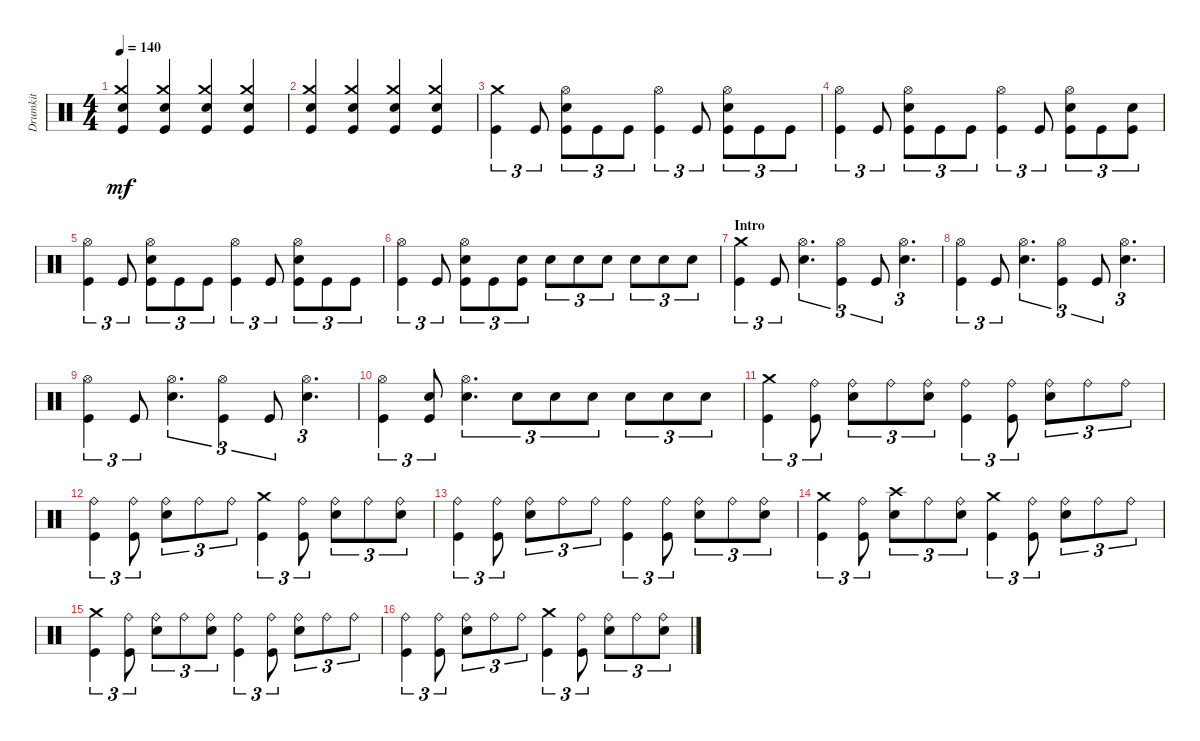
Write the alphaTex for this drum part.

\track ("Drumkit" "Drumkit") {instrument percussion}
\staff {score}
\articulation defaults
\ts (4 4)
\tempo 140
\clef neutral
\ks c
("Snare (hit) 2" "Crash medium (hit)" "Kick (hit)").4{dy mf} ("Snare (hit) 2" "Crash medium (hit)" "Kick (hit)").4 ("Snare (hit) 2" "Crash medium (hit)" "Kick (hit)").4 ("Snare (hit) 2" "Crash medium (hit)" "Kick (hit)").4 |
("Snare (hit) 2" "Crash medium (hit)" "Kick (hit)").4 ("Snare (hit) 2" "Crash medium (hit)" "Kick (hit)").4 ("Snare (hit) 2" "Crash medium (hit)" "Kick (hit)").4 ("Snare (hit) 2" "Crash medium (hit)" "Kick (hit)").4 |
("Kick (hit)" "Crash medium (hit)").4{tu (3 2)} "Kick (hit)".8{tu (3 2)} ("Kick (hit)" "Hi-Hat (open)" "Snare (hit) 2").8{tu (3 2)} "Kick (hit)".8{tu (3 2)} "Kick (hit)".8{tu (3 2)} ("Kick (hit)" "Hi-Hat (open)").4{tu (3 2)} "Kick (hit)".8{tu (3 2)} ("Kick (hit)" "Hi-Hat (open)" "Snare (hit) 2").8{tu (3 2)} "Kick (hit)".8{tu (3 2)} "Kick (hit)".8{tu (3 2)} |
("Kick (hit)" "Hi-Hat (open)").4{tu (3 2)} "Kick (hit)".8{tu (3 2)} ("Kick (hit)" "Hi-Hat (open)" "Snare (hit) 2").8{tu (3 2)} "Kick (hit)".8{tu (3 2)} "Kick (hit)".8{tu (3 2)} ("Kick (hit)" "Hi-Hat (open)").4{tu (3 2)} "Kick (hit)".8{tu (3 2)} ("Kick (hit)" "Hi-Hat (open)" "Snare (hit) 2").8{tu (3 2)} "Kick (hit)".8{tu (3 2)} ("Kick (hit)" "Snare (hit) 2").8{tu (3 2)} |
("Kick (hit)" "Hi-Hat (open)").4{tu (3 2)} "Kick (hit)".8{tu (3 2)} ("Kick (hit)" "Hi-Hat (open)" "Snare (hit) 2").8{tu (3 2)} "Kick (hit)".8{tu (3 2)} "Kick (hit)".8{tu (3 2)} ("Kick (hit)" "Hi-Hat (open)").4{tu (3 2)} "Kick (hit)".8{tu (3 2)} ("Kick (hit)" "Hi-Hat (open)" "Snare (hit) 2").8{tu (3 2)} "Kick (hit)".8{tu (3 2)} "Kick (hit)".8{tu (3 2)} |
("Kick (hit)" "Hi-Hat (open)").4{tu (3 2)} "Kick (hit)".8{tu (3 2)} ("Kick (hit)" "Hi-Hat (open)" "Snare (hit) 2").8{tu (3 2)} "Kick (hit)".8{tu (3 2)} ("Kick (hit)" "Snare (hit) 2").8{tu (3 2)} "Snare (hit) 2".8{tu (3 2)} "Snare (hit) 2".8{tu (3 2)} "Snare (hit) 2".8{tu (3 2)} "Snare (hit) 2".8{tu (3 2)} "Snare (hit) 2".8{tu (3 2)} "Snare (hit) 2".8{tu (3 2)} |
\section ("" "Intro")
("Crash medium (hit)" "Kick (hit)").4{tu (3 2)} "Kick (hit)".8{tu (3 2)} ("Snare (hit) 2" "Hi-Hat (open)").4{d tu (3 2)} ("Kick (hit)" "Hi-Hat (open)").4{tu (3 2)} "Kick (hit)".8{tu (3 2)} ("Snare (hit) 2" "Hi-Hat (open)").4{d tu (3 2)} |
("Kick (hit)" "Hi-Hat (open)").4{tu (3 2)} "Kick (hit)".8{tu (3 2)} ("Snare (hit) 2" "Hi-Hat (open)").4{d tu (3 2)} ("Kick (hit)" "Hi-Hat (open)").4{tu (3 2)} "Kick (hit)".8{tu (3 2)} ("Snare (hit) 2" "Hi-Hat (open)").4{d tu (3 2)} |
("Kick (hit)" "Hi-Hat (open)").4{tu (3 2)} "Kick (hit)".8{tu (3 2)} ("Snare (hit) 2" "Hi-Hat (open)").4{d tu (3 2)} ("Kick (hit)" "Hi-Hat (open)").4{tu (3 2)} "Kick (hit)".8{tu (3 2)} ("Snare (hit) 2" "Hi-Hat (open)").4{d tu (3 2)} |
("Kick (hit)" "Hi-Hat (open)").4{tu (3 2)} ("Kick (hit)" "Snare (hit) 2").8{tu (3 2)} ("Snare (hit) 2" "Hi-Hat (open)").4{d tu (3 2)} "Snare (hit) 2".8{tu (3 2)} "Snare (hit) 2".8{tu (3 2)} "Snare (hit) 2".8{tu (3 2)} "Snare (hit) 2".8{tu (3 2)} "Snare (hit) 2".8{tu (3 2)} "Snare (hit) 2".8{tu (3 2)} |
("Crash medium (hit)" "Kick (hit)").4{tu (3 2)} ("Ride (bell)" "Kick (hit)").8{tu (3 2)} ("Ride (bell)" "Snare (hit) 2").8{tu (3 2)} "Ride (bell)".8{tu (3 2)} ("Ride (bell)" "Snare (hit) 2").8{tu (3 2)} ("Ride (bell)" "Kick (hit)").4{tu (3 2)} ("Ride (bell)" "Kick (hit)").8{tu (3 2)} ("Ride (bell)" "Snare (hit) 2").8{tu (3 2)} "Ride (bell)".8{tu (3 2)} "Ride (bell)".8{tu (3 2)} |
("Kick (hit)" "Ride (bell)").4{tu (3 2)} ("Ride (bell)" "Kick (hit)").8{tu (3 2)} ("Ride (bell)" "Snare (hit) 2").8{tu (3 2)} "Ride (bell)".8{tu (3 2)} "Ride (bell)".8{tu (3 2)} ("Kick (hit)" "Crash medium (hit)").4{tu (3 2)} ("Ride (bell)" "Kick (hit)").8{tu (3 2)} ("Ride (bell)" "Snare (hit) 2").8{tu (3 2)} "Ride (bell)".8{tu (3 2)} ("Ride (bell)" "Snare (hit) 2").8{tu (3 2)} |
("Kick (hit)" "Ride (bell)").4{tu (3 2)} ("Ride (bell)" "Kick (hit)").8{tu (3 2)} ("Ride (bell)" "Snare (hit) 2").8{tu (3 2)} "Ride (bell)".8{tu (3 2)} "Ride (bell)".8{tu (3 2)} ("Ride (bell)" "Kick (hit)").4{tu (3 2)} ("Ride (bell)" "Kick (hit)").8{tu (3 2)} ("Ride (bell)" "Snare (hit) 2").8{tu (3 2)} "Ride (bell)".8{tu (3 2)} ("Ride (bell)" "Snare (hit) 2").8{tu (3 2)} |
("Kick (hit)" "Crash medium (hit)").4{tu (3 2)} ("Ride (bell)" "Kick (hit)").8{tu (3 2)} ("Snare (hit) 2" "Crash high (hit)").8{tu (3 2)} "Ride (bell)".8{tu (3 2)} ("Ride (bell)" "Snare (hit) 2").8{tu (3 2)} ("Kick (hit)" "Crash medium (hit)").4{tu (3 2)} ("Ride (bell)" "Kick (hit)").8{tu (3 2)} ("Ride (bell)" "Snare (hit) 2").8{tu (3 2)} "Ride (bell)".8{tu (3 2)} "Ride (bell)".8{tu (3 2)} |
("Crash medium (hit)" "Kick (hit)").4{tu (3 2)} ("Ride (bell)" "Kick (hit)").8{tu (3 2)} ("Ride (bell)" "Snare (hit) 2").8{tu (3 2)} "Ride (bell)".8{tu (3 2)} ("Ride (bell)" "Snare (hit) 2").8{tu (3 2)} ("Ride (bell)" "Kick (hit)").4{tu (3 2)} ("Ride (bell)" "Kick (hit)").8{tu (3 2)} ("Ride (bell)" "Snare (hit) 2").8{tu (3 2)} "Ride (bell)".8{tu (3 2)} "Ride (bell)".8{tu (3 2)} |
("Kick (hit)" "Ride (bell)").4{tu (3 2)} ("Ride (bell)" "Kick (hit)").8{tu (3 2)} ("Ride (bell)" "Snare (hit) 2").8{tu (3 2)} "Ride (bell)".8{tu (3 2)} "Ride (bell)".8{tu (3 2)} ("Kick (hit)" "Crash medium (hit)").4{tu (3 2)} ("Ride (bell)" "Kick (hit)").8{tu (3 2)} ("Ride (bell)" "Snare (hit) 2").8{tu (3 2)} "Ride (bell)".8{tu (3 2)} ("Ride (bell)" "Snare (hit) 2").8{tu (3 2)}
